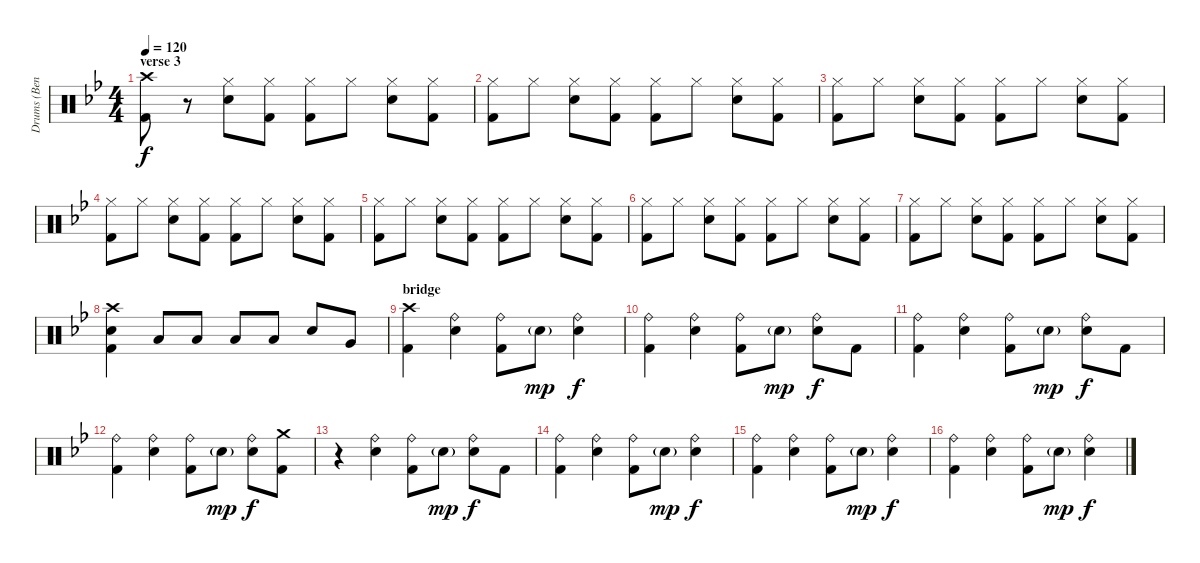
\track ("Drums (Bengerg)" "Drums (Ben") {instrument percussion}
\staff {score}
\articulation defaults
\ts (4 4)
\section ("" "verse 3")
\tempo 120
\clef neutral
\ks bb
("Crash high (hit)" "Kick (hit) 2").8{dy f} r.8 ("Hi-Hat (closed)" "Electric Snare (hit)").8 ("Hi-Hat (closed)" "Kick (hit) 2").8 ("Hi-Hat (closed)" "Kick (hit) 2").8 "Hi-Hat (closed)".8 ("Hi-Hat (closed)" "Electric Snare (hit)").8 ("Hi-Hat (closed)" "Kick (hit) 2").8 |
("Hi-Hat (closed)" "Kick (hit) 2").8 "Hi-Hat (closed)".8 ("Hi-Hat (closed)" "Electric Snare (hit)").8 ("Hi-Hat (closed)" "Kick (hit) 2").8 ("Hi-Hat (closed)" "Kick (hit) 2").8 "Hi-Hat (closed)".8 ("Hi-Hat (closed)" "Electric Snare (hit)").8 ("Hi-Hat (closed)" "Kick (hit) 2").8 |
("Hi-Hat (closed)" "Kick (hit) 2").8 "Hi-Hat (closed)".8 ("Hi-Hat (closed)" "Electric Snare (hit)").8 ("Hi-Hat (closed)" "Kick (hit) 2").8 ("Hi-Hat (closed)" "Kick (hit) 2").8 "Hi-Hat (closed)".8 ("Hi-Hat (closed)" "Electric Snare (hit)").8 ("Hi-Hat (closed)" "Kick (hit) 2").8 |
("Hi-Hat (closed)" "Kick (hit) 2").8 "Hi-Hat (closed)".8 ("Hi-Hat (closed)" "Electric Snare (hit)").8 ("Hi-Hat (closed)" "Kick (hit) 2").8 ("Hi-Hat (closed)" "Kick (hit) 2").8 "Hi-Hat (closed)".8 ("Hi-Hat (closed)" "Electric Snare (hit)").8 ("Hi-Hat (closed)" "Kick (hit) 2").8 |
("Hi-Hat (closed)" "Kick (hit) 2").8 "Hi-Hat (closed)".8 ("Hi-Hat (closed)" "Electric Snare (hit)").8 ("Hi-Hat (closed)" "Kick (hit) 2").8 ("Hi-Hat (closed)" "Kick (hit) 2").8 "Hi-Hat (closed)".8 ("Hi-Hat (closed)" "Electric Snare (hit)").8 ("Hi-Hat (closed)" "Kick (hit) 2").8 |
("Hi-Hat (closed)" "Kick (hit) 2").8 "Hi-Hat (closed)".8 ("Hi-Hat (closed)" "Electric Snare (hit)").8 ("Hi-Hat (closed)" "Kick (hit) 2").8 ("Hi-Hat (closed)" "Kick (hit) 2").8 "Hi-Hat (closed)".8 ("Hi-Hat (closed)" "Electric Snare (hit)").8 ("Hi-Hat (closed)" "Kick (hit) 2").8 |
("Hi-Hat (closed)" "Kick (hit) 2").8 "Hi-Hat (closed)".8 ("Hi-Hat (closed)" "Electric Snare (hit)").8 ("Hi-Hat (closed)" "Kick (hit) 2").8 ("Hi-Hat (closed)" "Kick (hit) 2").8 "Hi-Hat (closed)".8 ("Hi-Hat (closed)" "Electric Snare (hit)").8 ("Hi-Hat (closed)" "Kick (hit) 2").8 |
("Crash high (hit)" "Electric Snare (hit)" "Kick (hit) 2").4 "Low Tom (hit)".8 "Low Tom (hit)".8 "Low Tom (hit)".8 "Low Tom (hit)".8 "Electric Snare (hit)".8 "Very Low Tom (hit)".8 |
\section ("" "bridge")
("Crash high (hit)" "Kick (hit) 2").4 ("Ride (bell)" "Electric Snare (hit)").4 ("Ride (bell)" "Kick (hit) 2").8 "Electric Snare (hit)"{g}.8{dy mp} ("Ride (bell)" "Electric Snare (hit)").4{dy f} |
("Ride (bell)" "Kick (hit) 2").4 ("Ride (bell)" "Electric Snare (hit)").4 ("Ride (bell)" "Kick (hit) 2").8 "Electric Snare (hit)"{g}.8{dy mp} ("Ride (bell)" "Electric Snare (hit)").8{dy f} "Kick (hit) 2".8 |
("Ride (bell)" "Kick (hit) 2").4 ("Ride (bell)" "Electric Snare (hit)").4 ("Ride (bell)" "Kick (hit) 2").8 "Electric Snare (hit)"{g}.8{dy mp} ("Ride (bell)" "Electric Snare (hit)").8{dy f} "Kick (hit) 2".8 |
("Ride (bell)" "Kick (hit) 2").4 ("Ride (bell)" "Electric Snare (hit)").4 ("Ride (bell)" "Kick (hit) 2").8 "Electric Snare (hit)"{g}.8{dy mp} ("Ride (bell)" "Electric Snare (hit)").8{dy f} ("Crash medium (hit)" "Kick (hit) 2").8 |
r.4 ("Ride (bell)" "Electric Snare (hit)").4 ("Ride (bell)" "Kick (hit) 2").8 "Electric Snare (hit)"{g}.8{dy mp} ("Ride (bell)" "Electric Snare (hit)").8{dy f} "Kick (hit) 2".8 |
("Ride (bell)" "Kick (hit) 2").4 ("Ride (bell)" "Electric Snare (hit)").4 ("Ride (bell)" "Kick (hit) 2").8 "Electric Snare (hit)"{g}.8{dy mp} ("Ride (bell)" "Electric Snare (hit)").4{dy f} |
("Ride (bell)" "Kick (hit) 2").4 ("Ride (bell)" "Electric Snare (hit)").4 ("Ride (bell)" "Kick (hit) 2").8 "Electric Snare (hit)"{g}.8{dy mp} ("Ride (bell)" "Electric Snare (hit)").4{dy f} |
("Ride (bell)" "Kick (hit) 2").4 ("Ride (bell)" "Electric Snare (hit)").4 ("Ride (bell)" "Kick (hit) 2").8 "Electric Snare (hit)"{g}.8{dy mp} ("Ride (bell)" "Electric Snare (hit)").4{dy f}
